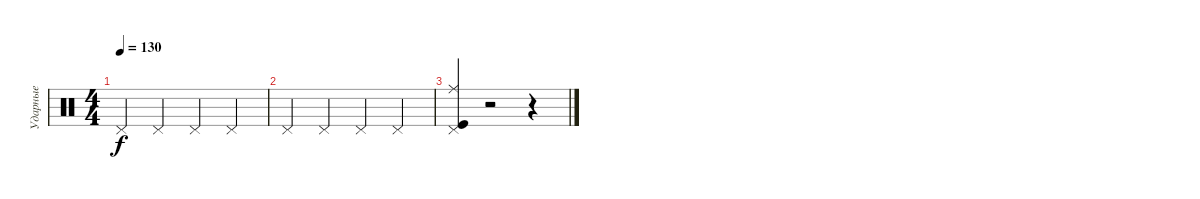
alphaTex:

\track ("Ударные" "Ударные") {instrument percussion}
\staff {score}
\articulation defaults
\ts (4 4)
\tempo 130
\clef neutral
\ks c "Pedal Hi-Hat (hit)".4{dy f} "Pedal Hi-Hat (hit)".4 "Pedal Hi-Hat (hit)".4 "Pedal Hi-Hat (hit)".4
|
"Pedal Hi-Hat (hit)".4 "Pedal Hi-Hat (hit)".4 "Pedal Hi-Hat (hit)".4 "Pedal Hi-Hat (hit)".4 |
("Kick (hit)" "Pedal Hi-Hat (hit)" "Ride (middle)").4 r.2 r.4
